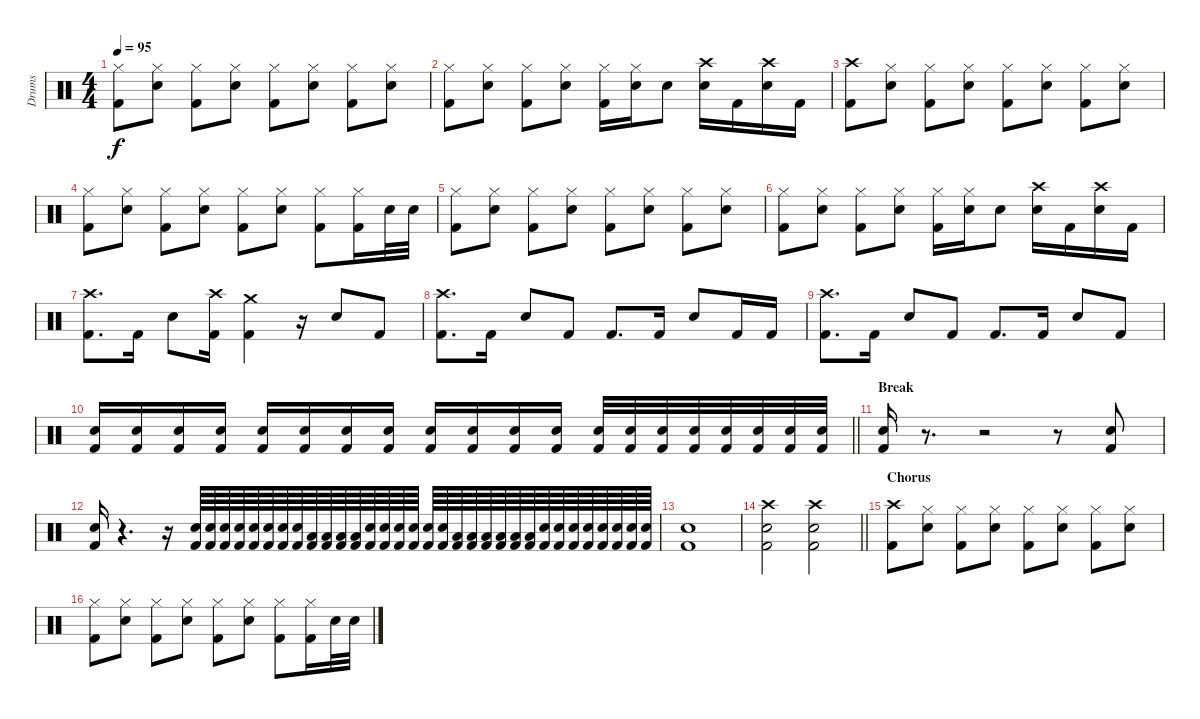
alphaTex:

\track ("Drums" "Drums") {instrument percussion}
\staff {score}
\articulation defaults
\ts (4 4)
\tempo 95
\clef neutral
\ks c
("Hi-Hat (closed)" "Kick (hit) 2").8{dy f} ("Hi-Hat (closed)" "Snare (hit) 2").8 ("Hi-Hat (closed)" "Kick (hit) 2").8 ("Hi-Hat (closed)" "Snare (hit) 2").8 ("Hi-Hat (closed)" "Kick (hit) 2").8 ("Hi-Hat (closed)" "Snare (hit) 2").8 ("Hi-Hat (closed)" "Kick (hit) 2").8 ("Hi-Hat (closed)" "Snare (hit) 2").8 |
("Hi-Hat (closed)" "Kick (hit) 2").8 ("Hi-Hat (closed)" "Snare (hit) 2").8 ("Hi-Hat (closed)" "Kick (hit) 2").8 ("Hi-Hat (closed)" "Snare (hit) 2").8 ("Hi-Hat (closed)" "Kick (hit) 2").16 ("Hi-Hat (closed)" "Snare (hit) 2").16 "Snare (hit) 2".8 ("Crash high (hit)" "Snare (hit) 2").16 "Kick (hit) 2".16 ("Crash high (hit)" "Snare (hit) 2").16 "Kick (hit) 2".16 |
("Crash high (hit)" "Kick (hit) 2").8 ("Hi-Hat (closed)" "Snare (hit) 2").8 ("Hi-Hat (closed)" "Kick (hit) 2").8 ("Hi-Hat (closed)" "Snare (hit) 2").8 ("Hi-Hat (closed)" "Kick (hit) 2").8 ("Hi-Hat (closed)" "Snare (hit) 2").8 ("Hi-Hat (closed)" "Kick (hit) 2").8 ("Hi-Hat (closed)" "Snare (hit) 2").8 |
("Hi-Hat (closed)" "Kick (hit) 2").8 ("Hi-Hat (closed)" "Snare (hit) 2").8 ("Hi-Hat (closed)" "Kick (hit) 2").8 ("Hi-Hat (closed)" "Snare (hit) 2").8 ("Hi-Hat (closed)" "Kick (hit) 2").8 ("Hi-Hat (closed)" "Snare (hit) 2").8 ("Hi-Hat (closed)" "Kick (hit) 2").8 ("Hi-Hat (closed)" "Kick (hit) 2").16 "Snare (hit) 2".32 "Snare (hit) 2".32 |
("Hi-Hat (closed)" "Kick (hit) 2").8 ("Hi-Hat (closed)" "Snare (hit) 2").8 ("Hi-Hat (closed)" "Kick (hit) 2").8 ("Hi-Hat (closed)" "Snare (hit) 2").8 ("Hi-Hat (closed)" "Kick (hit) 2").8 ("Hi-Hat (closed)" "Snare (hit) 2").8 ("Hi-Hat (closed)" "Kick (hit) 2").8 ("Hi-Hat (closed)" "Snare (hit) 2").8 |
("Hi-Hat (closed)" "Kick (hit) 2").8 ("Hi-Hat (closed)" "Snare (hit) 2").8 ("Hi-Hat (closed)" "Kick (hit) 2").8 ("Hi-Hat (closed)" "Snare (hit) 2").8 ("Hi-Hat (closed)" "Kick (hit) 2").16 ("Hi-Hat (closed)" "Snare (hit) 2").16 "Snare (hit) 2".8 ("Crash high (hit)" "Snare (hit) 2").16 "Kick (hit) 2".16 ("Crash high (hit)" "Snare (hit) 2").16 "Kick (hit) 2".16 |
("Crash high (hit)" "Kick (hit) 2").8{d} "Kick (hit) 2".16 "Snare (hit) 2".8 ("Crash high (hit)" "Kick (hit) 2").16 ("Crash medium (hit)" "Kick (hit) 2").4 r.16 "Snare (hit) 2".8 "Kick (hit) 2".8 |
("Crash high (hit)" "Kick (hit) 2").8{d} "Kick (hit) 2".16 "Snare (hit) 2".8 "Kick (hit) 2".8 "Kick (hit) 2".8{d} "Kick (hit) 2".16 "Snare (hit) 2".8 "Kick (hit) 2".16 "Kick (hit) 2".16 |
("Crash high (hit)" "Kick (hit) 2").8{d} "Kick (hit) 2".16 "Snare (hit) 2".8 "Kick (hit) 2".8 "Kick (hit) 2".8{d} "Kick (hit) 2".16 "Snare (hit) 2".8 "Kick (hit) 2".8 |
\barLineRight lightlight
("Snare (hit) 2" "Kick (hit) 2").16 ("Snare (hit) 2" "Kick (hit) 2").16 ("Snare (hit) 2" "Kick (hit) 2").16 ("Snare (hit) 2" "Kick (hit) 2").16 ("Snare (hit) 2" "Kick (hit) 2").16 ("Snare (hit) 2" "Kick (hit) 2").16 ("Snare (hit) 2" "Kick (hit) 2").16 ("Snare (hit) 2" "Kick (hit) 2").16 ("Snare (hit) 2" "Kick (hit) 2").16 ("Snare (hit) 2" "Kick (hit) 2").16 ("Snare (hit) 2" "Kick (hit) 2").16 ("Snare (hit) 2" "Kick (hit) 2").16 ("Snare (hit) 2" "Kick (hit) 2").32 ("Snare (hit) 2" "Kick (hit) 2").32 ("Snare (hit) 2" "Kick (hit) 2").32 ("Snare (hit) 2" "Kick (hit) 2").32 ("Electric Snare (hit)" "Kick (hit) 2").32 ("Electric Snare (hit)" "Kick (hit) 2").32 ("Electric Snare (hit)" "Kick (hit) 2").32 ("Electric Snare (hit)" "Kick (hit) 2").32 |
\section ("" "Break")
("Snare (hit) 2" "Kick (hit) 2").16 r.8{d} r.2 r.8 ("Snare (hit) 2" "Kick (hit) 2").8 |
("Snare (hit) 2" "Kick (hit) 2").16 r.4{d} r.16 ("Snare (hit) 2" "Kick (hit) 2").64 ("Snare (hit) 2" "Kick (hit) 2").64 ("Snare (hit) 2" "Kick (hit) 2").64 ("Snare (hit) 2" "Kick (hit) 2").64 ("Snare (hit) 2" "Kick (hit) 2").64 ("Snare (hit) 2" "Kick (hit) 2").64 ("Snare (hit) 2" "Kick (hit) 2").64 ("Snare (hit) 2" "Kick (hit) 2").64 ("Low Tom (hit)" "Kick (hit) 2").64 ("Low Tom (hit)" "Kick (hit) 2").64 ("Low Tom (hit)" "Kick (hit) 2").64 ("Low Tom (hit)" "Kick (hit) 2").64 ("Snare (hit) 2" "Kick (hit) 2").64 ("Snare (hit) 2" "Kick (hit) 2").64 ("Snare (hit) 2" "Kick (hit) 2").64 ("Snare (hit) 2" "Kick (hit) 2").64 ("Snare (hit) 2" "Kick (hit) 2").64 ("Snare (hit) 2" "Kick (hit) 2").64 ("Low Tom (hit)" "Kick (hit) 2").64 ("Low Tom (hit)" "Kick (hit) 2").64 ("Low Tom (hit)" "Kick (hit) 2").64 ("Low Tom (hit)" "Kick (hit) 2").64 ("Low Tom (hit)" "Kick (hit) 2").64 ("Low Tom (hit)" "Kick (hit) 2").64 ("Snare (hit) 2" "Kick (hit) 2").64 ("Snare (hit) 2" "Kick (hit) 2").64 ("Snare (hit) 2" "Kick (hit) 2").64 ("Snare (hit) 2" "Kick (hit) 2").64 ("Electric Snare (hit)" "Kick (hit) 2").64 ("Electric Snare (hit)" "Kick (hit) 2").64 ("Electric Snare (hit)" "Kick (hit) 2").64 ("Electric Snare (hit)" "Kick (hit) 2").64 |
("Snare (hit) 2" "Kick (hit) 2").1 |
\barLineRight lightlight
("Crash high (hit)" "Snare (hit) 2" "Kick (hit) 2").2 ("Crash high (hit)" "Snare (hit) 2" "Kick (hit) 2").2 |
\section ("" "Chorus")
("Crash high (hit)" "Kick (hit) 2").8 ("Hi-Hat (closed)" "Snare (hit) 2").8 ("Hi-Hat (closed)" "Kick (hit) 2").8 ("Hi-Hat (closed)" "Snare (hit) 2").8 ("Hi-Hat (closed)" "Kick (hit) 2").8 ("Hi-Hat (closed)" "Snare (hit) 2").8 ("Hi-Hat (closed)" "Kick (hit) 2").8 ("Hi-Hat (closed)" "Snare (hit) 2").8 |
("Hi-Hat (closed)" "Kick (hit) 2").8 ("Hi-Hat (closed)" "Snare (hit) 2").8 ("Hi-Hat (closed)" "Kick (hit) 2").8 ("Hi-Hat (closed)" "Snare (hit) 2").8 ("Hi-Hat (closed)" "Kick (hit) 2").8 ("Hi-Hat (closed)" "Snare (hit) 2").8 ("Hi-Hat (closed)" "Kick (hit) 2").8 ("Hi-Hat (closed)" "Kick (hit) 2").16 "Snare (hit) 2".32 "Snare (hit) 2".32
